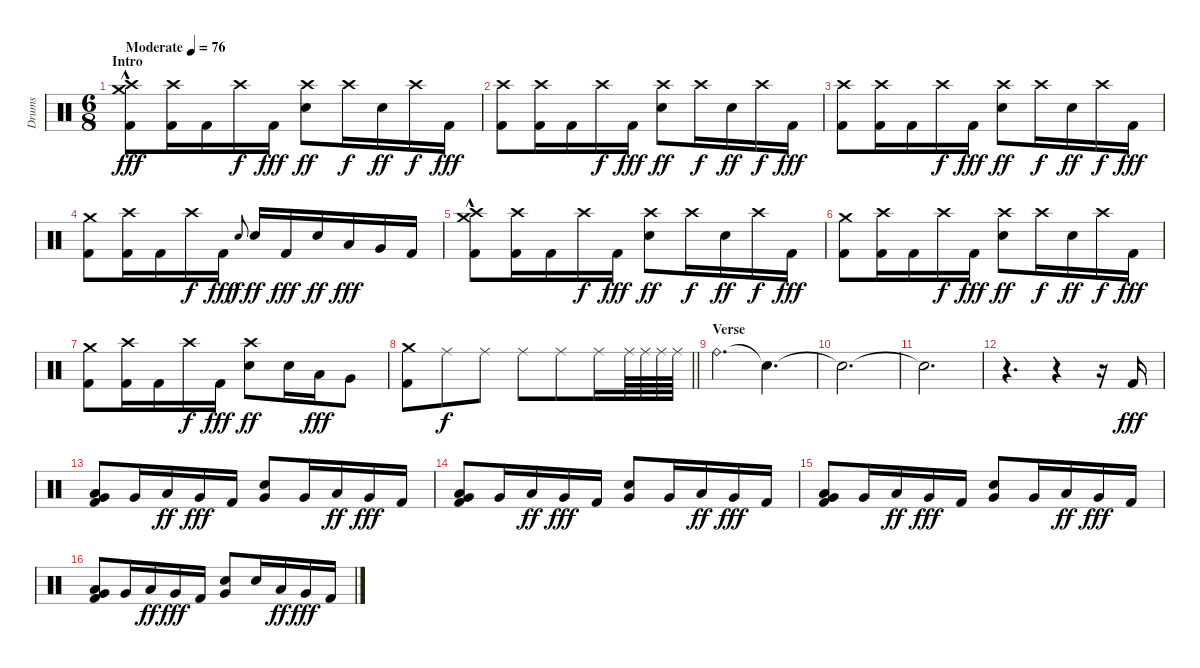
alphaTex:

\track ("Drums" "Drums") {instrument percussion}
\staff {score}
\articulation defaults
\ts (6 8)
\section ("" "Intro")
\tempo (76 "Moderate")
\clef neutral
\ks c
("Crash medium (hit)"{hac} "Crash high (hit)"{hac} "Kick (hit) 2"{hac}).8{dy fff} ("Crash high (hit)" "Kick (hit) 2").16 "Kick (hit) 2".16 "Crash high (hit)".16{dy f} "Kick (hit) 2".16{dy fff} ("Crash high (hit)" "Snare (hit) 2").8{dy ff} "Crash high (hit)".16{dy f} "Snare (hit) 2".16{dy ff} "Crash high (hit)".16{dy f} "Kick (hit) 2".16{dy fff} |
("Crash high (hit)" "Kick (hit) 2").8 ("Crash high (hit)" "Kick (hit) 2").16 "Kick (hit) 2".16 "Crash high (hit)".16{dy f} "Kick (hit) 2".16{dy fff} ("Crash high (hit)" "Snare (hit) 2").8{dy ff} "Crash high (hit)".16{dy f} "Snare (hit) 2".16{dy ff} "Crash high (hit)".16{dy f} "Kick (hit) 2".16{dy fff} |
("Crash high (hit)" "Kick (hit) 2").8 ("Crash high (hit)" "Kick (hit) 2").16 "Kick (hit) 2".16 "Crash high (hit)".16{dy f} "Kick (hit) 2".16{dy fff} ("Crash high (hit)" "Snare (hit) 2").8{dy ff} "Crash high (hit)".16{dy f} "Snare (hit) 2".16{dy ff} "Crash high (hit)".16{dy f} "Kick (hit) 2".16{dy fff} |
("Crash medium (hit)" "Kick (hit) 2").8 ("Crash high (hit)" "Kick (hit) 2").16 "Kick (hit) 2".16 "Crash high (hit)".16{dy f} "Kick (hit) 2".16{dy fff} "Snare (hit) 2".8{gr onbeat dy f} "Snare (hit) 2".16{dy ff} "Kick (hit) 2".16{dy fff} "Snare (hit) 2".16{dy ff} "Low Tom (hit)".16{dy fff} "Very Low Tom (hit)".16 "Kick (hit) 2".16 |
("Crash medium (hit)"{hac} "Crash high (hit)"{hac} "Kick (hit) 2"{hac}).8 ("Crash high (hit)" "Kick (hit) 2").16 "Kick (hit) 2".16 "Crash high (hit)".16{dy f} "Kick (hit) 2".16{dy fff} ("Crash high (hit)" "Snare (hit) 2").8{dy ff} "Crash high (hit)".16{dy f} "Snare (hit) 2".16{dy ff} "Crash high (hit)".16{dy f} "Kick (hit) 2".16{dy fff} |
("Crash medium (hit)" "Kick (hit) 2").8 ("Crash high (hit)" "Kick (hit) 2").16 "Kick (hit) 2".16 "Crash high (hit)".16{dy f} "Kick (hit) 2".16{dy fff} ("Crash high (hit)" "Snare (hit) 2").8{dy ff} "Crash high (hit)".16{dy f} "Snare (hit) 2".16{dy ff} "Crash high (hit)".16{dy f} "Kick (hit) 2".16{dy fff} |
("Crash medium (hit)" "Kick (hit) 2").8 ("Crash high (hit)" "Kick (hit) 2").16 "Kick (hit) 2".16 "Crash high (hit)".16{dy f} "Kick (hit) 2".16{dy fff} ("Crash high (hit)" "Snare (hit) 2").8{dy ff} "Snare (hit) 2".16 "Low Tom (hit)".16{dy fff} "Very Low Tom (hit)".8 |
\barLineRight lightlight
("Crash medium (hit)" "Kick (hit) 2").8 "Ride (middle)".8{dy f} "Ride (middle)".8 "Ride (middle)".8 "Ride (middle)".8 "Ride (middle)".16 "Ride (middle)".64 "Ride (middle)".64 "Ride (middle)".64 "Ride (middle)".64 |
\section ("" "Verse")
"Ride (bell)".4{d} "Snare (hit)"{t}.4{d} |
"Snare (hit)"{t}.2{d} |
"Snare (hit)"{t}.2{d} |
r.4{d} r.4 r.16 "Kick (hit) 2".16{dy fff} |
("Low Tom (hit)" "Very Low Tom (hit)" "Kick (hit) 2").8 "Very Low Tom (hit)".16 "Low Tom (hit)".16{dy ff} "Very Low Tom (hit)".16{dy fff} "Kick (hit) 2".16 ("Snare (hit) 2" "Very Low Tom (hit)").8 "Very Low Tom (hit)".16 "Low Tom (hit)".16{dy ff} "Very Low Tom (hit)".16{dy fff} "Kick (hit) 2".16 |
("Low Tom (hit)" "Very Low Tom (hit)" "Kick (hit) 2").8 "Very Low Tom (hit)".16 "Low Tom (hit)".16{dy ff} "Very Low Tom (hit)".16{dy fff} "Kick (hit) 2".16 ("Snare (hit) 2" "Very Low Tom (hit)").8 "Very Low Tom (hit)".16 "Low Tom (hit)".16{dy ff} "Very Low Tom (hit)".16{dy fff} "Kick (hit) 2".16 |
("Low Tom (hit)" "Very Low Tom (hit)" "Kick (hit) 2").8 "Very Low Tom (hit)".16 "Low Tom (hit)".16{dy ff} "Very Low Tom (hit)".16{dy fff} "Kick (hit) 2".16 ("Snare (hit) 2" "Very Low Tom (hit)").8 "Very Low Tom (hit)".16 "Low Tom (hit)".16{dy ff} "Very Low Tom (hit)".16{dy fff} "Kick (hit) 2".16 |
("Low Tom (hit)" "Very Low Tom (hit)" "Kick (hit) 2").8 "Very Low Tom (hit)".16 "Low Tom (hit)".16{dy ff} "Very Low Tom (hit)".16{dy fff} "Kick (hit) 2".16 ("Snare (hit) 2" "Very Low Tom (hit)").8 "Snare (hit) 2".16 "Low Tom (hit)".16{dy ff} "Very Low Tom (hit)".16{dy fff} "Kick (hit) 2".16
